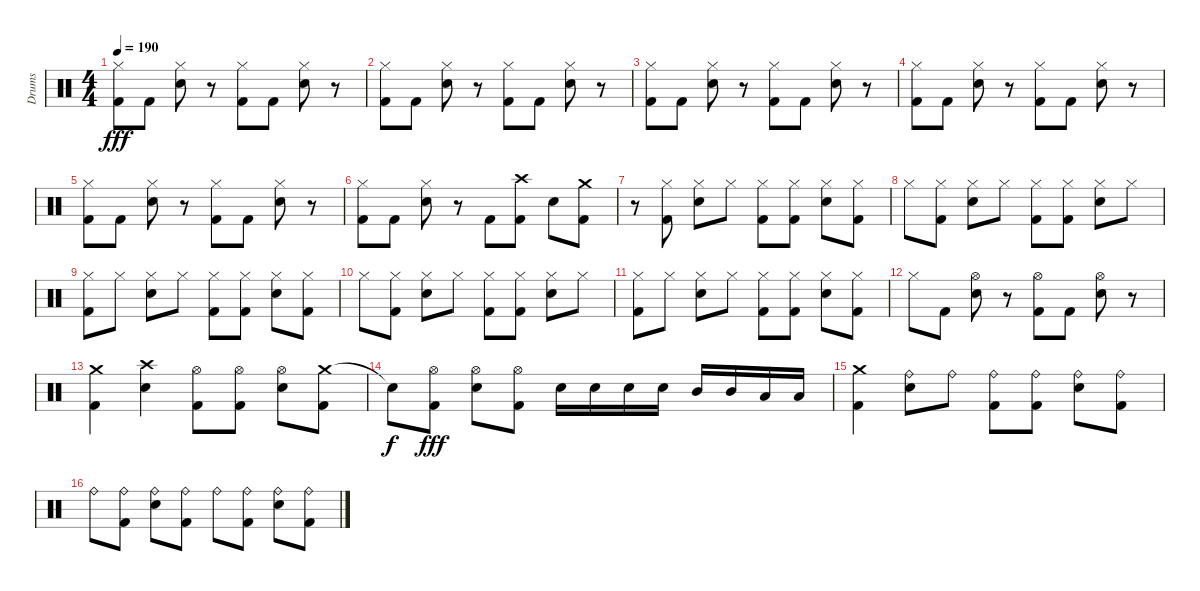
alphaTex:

\track ("Drums" "Drums") {instrument percussion}
\staff {score}
\articulation defaults
\ts (4 4)
\tempo 190
\clef neutral
\ks c
("Hi-Hat (closed)" "Kick (hit) 2").8{dy fff} "Kick (hit) 2".8 ("Hi-Hat (closed)" "Electric Snare (hit)").8 r.8 ("Hi-Hat (closed)" "Kick (hit) 2").8 "Kick (hit) 2".8 ("Hi-Hat (closed)" "Electric Snare (hit)").8 r.8 |
("Hi-Hat (closed)" "Kick (hit) 2").8 "Kick (hit) 2".8 ("Hi-Hat (closed)" "Electric Snare (hit)").8 r.8 ("Hi-Hat (closed)" "Kick (hit) 2").8 "Kick (hit) 2".8 ("Hi-Hat (closed)" "Electric Snare (hit)").8 r.8 |
("Hi-Hat (closed)" "Kick (hit) 2").8 "Kick (hit) 2".8 ("Hi-Hat (closed)" "Electric Snare (hit)").8 r.8 ("Hi-Hat (closed)" "Kick (hit) 2").8 "Kick (hit) 2".8 ("Hi-Hat (closed)" "Electric Snare (hit)").8 r.8 |
("Hi-Hat (closed)" "Kick (hit) 2").8 "Kick (hit) 2".8 ("Hi-Hat (closed)" "Electric Snare (hit)").8 r.8 ("Hi-Hat (closed)" "Kick (hit) 2").8 "Kick (hit) 2".8 ("Hi-Hat (closed)" "Electric Snare (hit)").8 r.8 |
("Hi-Hat (closed)" "Kick (hit) 2").8 "Kick (hit) 2".8 ("Hi-Hat (closed)" "Electric Snare (hit)").8 r.8 ("Hi-Hat (closed)" "Kick (hit) 2").8 "Kick (hit) 2".8 ("Hi-Hat (closed)" "Electric Snare (hit)").8 r.8 |
("Hi-Hat (closed)" "Kick (hit) 2").8 "Kick (hit) 2".8 ("Hi-Hat (closed)" "Electric Snare (hit)").8 r.8 "Kick (hit) 2".8 ("Crash high (hit)" "Kick (hit) 2").8 "Electric Snare (hit)".8 ("Crash medium (hit)" "Kick (hit) 2").8 |
r.8 ("Hi-Hat (closed)" "Kick (hit) 2").8 ("Electric Snare (hit)" "Hi-Hat (closed)").8 "Hi-Hat (closed)".8 ("Kick (hit) 2" "Hi-Hat (closed)").8 ("Kick (hit) 2" "Hi-Hat (closed)").8 ("Hi-Hat (closed)" "Electric Snare (hit)").8 ("Kick (hit) 2" "Hi-Hat (closed)").8 |
"Hi-Hat (closed)".8 ("Kick (hit) 2" "Hi-Hat (closed)").8 ("Hi-Hat (closed)" "Electric Snare (hit)").8 "Hi-Hat (closed)".8 ("Kick (hit) 2" "Hi-Hat (closed)").8 ("Hi-Hat (closed)" "Kick (hit) 2").8 ("Hi-Hat (closed)" "Electric Snare (hit)").8 "Hi-Hat (closed)".8 |
("Hi-Hat (closed)" "Kick (hit) 2").8 "Hi-Hat (closed)".8 ("Hi-Hat (closed)" "Electric Snare (hit)").8 "Hi-Hat (closed)".8 ("Kick (hit) 2" "Hi-Hat (closed)").8 ("Hi-Hat (closed)" "Kick (hit) 2").8 ("Electric Snare (hit)" "Hi-Hat (closed)").8 ("Kick (hit) 2" "Hi-Hat (closed)").8 |
"Hi-Hat (closed)".8 ("Hi-Hat (closed)" "Kick (hit) 2").8 ("Electric Snare (hit)" "Hi-Hat (closed)").8 "Hi-Hat (closed)".8 ("Hi-Hat (closed)" "Kick (hit) 2").8 ("Hi-Hat (closed)" "Kick (hit) 2").8 ("Hi-Hat (closed)" "Electric Snare (hit)").8 "Hi-Hat (closed)".8 |
("Kick (hit) 2" "Hi-Hat (closed)").8 "Hi-Hat (closed)".8 ("Electric Snare (hit)" "Hi-Hat (closed)").8 "Hi-Hat (closed)".8 ("Hi-Hat (closed)" "Kick (hit) 2").8 ("Kick (hit) 2" "Hi-Hat (closed)").8 ("Electric Snare (hit)" "Hi-Hat (closed)").8 ("Kick (hit) 2" "Hi-Hat (closed)").8 |
"Hi-Hat (closed)".8 "Kick (hit) 2".8 ("Electric Snare (hit)" "Hi-Hat (open)").8 r.8 ("Kick (hit) 2" "Hi-Hat (open)").8 "Kick (hit) 2".8 ("Electric Snare (hit)" "Hi-Hat (open)").8 r.8 |
("Crash medium (hit)" "Kick (hit) 2").4 ("Electric Snare (hit)" "Crash high (hit)").4 ("Hi-Hat (open)" "Kick (hit) 2").8 ("Kick (hit) 2" "Hi-Hat (open)").8 ("Electric Snare (hit)" "Hi-Hat (open)").8 ("Crash medium (hit)" "Kick (hit) 2").8 |
"Snare (hit)"{t}.8{dy f} ("Hi-Hat (open)" "Kick (hit) 2").8{dy fff} ("Hi-Hat (open)" "Electric Snare (hit)").8 ("Kick (hit) 2" "Hi-Hat (open)").8 "Electric Snare (hit)".16 "Electric Snare (hit)".16 "Electric Snare (hit)".16 "Electric Snare (hit)".16 "Mid Tom (hit)".16 "Mid Tom (hit)".16 "Low Tom (hit)".16 "Low Tom (hit)".16 |
("Crash medium (hit)" "Kick (hit) 2").4 ("Ride (bell)" "Electric Snare (hit)").8 "Ride (bell)".8 ("Kick (hit) 2" "Ride (bell)").8 ("Ride (bell)" "Kick (hit) 2").8 ("Electric Snare (hit)" "Ride (bell)").8 ("Ride (bell)" "Kick (hit) 2").8 |
"Ride (bell)".8 ("Kick (hit) 2" "Ride (bell)").8 ("Ride (bell)" "Electric Snare (hit)").8 ("Ride (bell)" "Kick (hit) 2").8 "Ride (bell)".8 ("Ride (bell)" "Kick (hit) 2").8 ("Ride (bell)" "Electric Snare (hit)").8 ("Ride (bell)" "Kick (hit) 2").8
